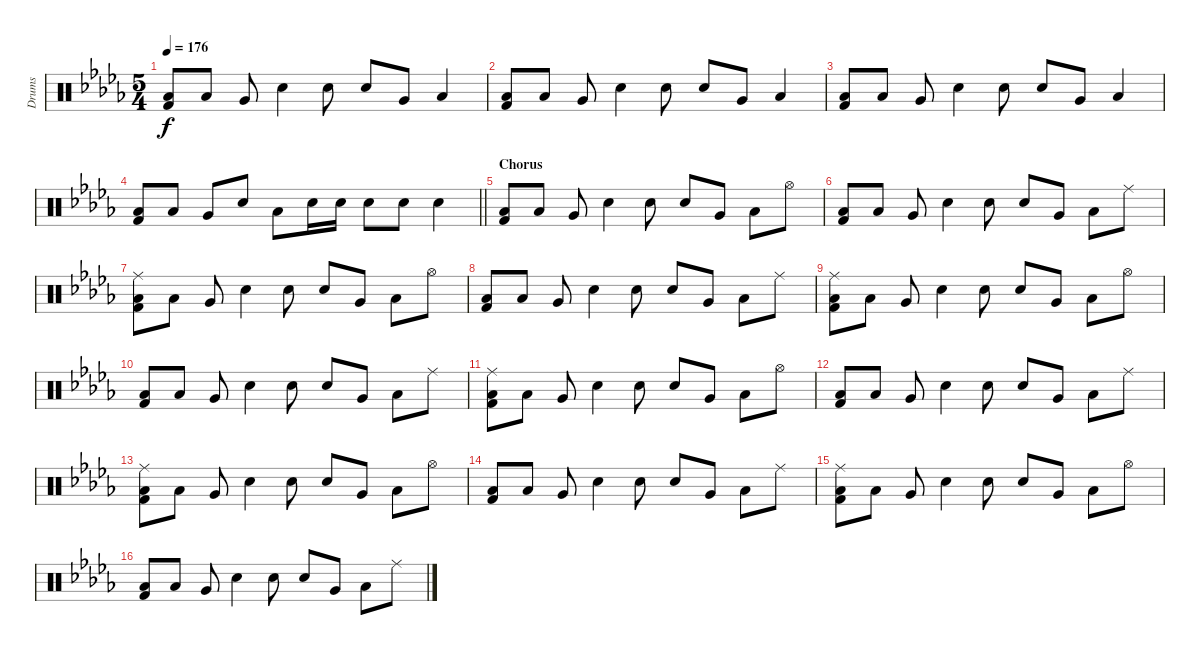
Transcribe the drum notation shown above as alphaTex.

\track ("Drums" "Drums") {instrument percussion}
\staff {score}
\articulation defaults
\ts (5 4)
\tempo 176
\clef neutral
\ks db
("Low Floor Tom (hit)" "Kick (hit) 2").8{dy f} "Low Floor Tom (hit)".8 "Very Low Tom (hit)".8 "Snare (hit) 2".4 "Snare (hit) 2".8 "Snare (hit) 2".8 "Very Low Tom (hit)".8 "Low Floor Tom (hit)".4 |
("Low Floor Tom (hit)" "Kick (hit) 2").8 "Low Floor Tom (hit)".8 "Very Low Tom (hit)".8 "Snare (hit) 2".4 "Snare (hit) 2".8 "Snare (hit) 2".8 "Very Low Tom (hit)".8 "Low Floor Tom (hit)".4 |
("Low Floor Tom (hit)" "Kick (hit) 2").8 "Low Floor Tom (hit)".8 "Very Low Tom (hit)".8 "Snare (hit) 2".4 "Snare (hit) 2".8 "Snare (hit) 2".8 "Very Low Tom (hit)".8 "Low Floor Tom (hit)".4 |
\barLineRight lightlight
("Low Floor Tom (hit)" "Kick (hit) 2").8 "Low Floor Tom (hit)".8 "Very Low Tom (hit)".8 "Snare (hit) 2".8 "Low Floor Tom (hit)".8 "Snare (hit) 2".16 "Snare (hit) 2".16 "Snare (hit) 2".8 "Snare (hit) 2".8 "Snare (hit) 2".4 |
\section ("" "Chorus")
("Low Floor Tom (hit)" "Kick (hit) 2").8 "Low Floor Tom (hit)".8 "Very Low Tom (hit)".8 "Snare (hit) 2".4 "Snare (hit) 2".8 "Snare (hit) 2".8 "Very Low Tom (hit)".8 "Low Floor Tom (hit)".8 "Hi-Hat (open)".8 |
("Low Floor Tom (hit)" "Kick (hit) 2").8 "Low Floor Tom (hit)".8 "Very Low Tom (hit)".8 "Snare (hit) 2".4 "Snare (hit) 2".8 "Snare (hit) 2".8 "Very Low Tom (hit)".8 "Low Floor Tom (hit)".8 "Ride (middle)".8 |
("Ride (middle)" "Low Floor Tom (hit)" "Kick (hit) 2").8 "Low Floor Tom (hit)".8 "Very Low Tom (hit)".8 "Snare (hit) 2".4 "Snare (hit) 2".8 "Snare (hit) 2".8 "Very Low Tom (hit)".8 "Low Floor Tom (hit)".8 "Hi-Hat (open)".8 |
("Low Floor Tom (hit)" "Kick (hit) 2").8 "Low Floor Tom (hit)".8 "Very Low Tom (hit)".8 "Snare (hit) 2".4 "Snare (hit) 2".8 "Snare (hit) 2".8 "Very Low Tom (hit)".8 "Low Floor Tom (hit)".8 "Ride (middle)".8 |
("Ride (middle)" "Low Floor Tom (hit)" "Kick (hit) 2").8 "Low Floor Tom (hit)".8 "Very Low Tom (hit)".8 "Snare (hit) 2".4 "Snare (hit) 2".8 "Snare (hit) 2".8 "Very Low Tom (hit)".8 "Low Floor Tom (hit)".8 "Hi-Hat (open)".8 |
("Low Floor Tom (hit)" "Kick (hit) 2").8 "Low Floor Tom (hit)".8 "Very Low Tom (hit)".8 "Snare (hit) 2".4 "Snare (hit) 2".8 "Snare (hit) 2".8 "Very Low Tom (hit)".8 "Low Floor Tom (hit)".8 "Ride (middle)".8 |
("Ride (middle)" "Low Floor Tom (hit)" "Kick (hit) 2").8 "Low Floor Tom (hit)".8 "Very Low Tom (hit)".8 "Snare (hit) 2".4 "Snare (hit) 2".8 "Snare (hit) 2".8 "Very Low Tom (hit)".8 "Low Floor Tom (hit)".8 "Hi-Hat (open)".8 |
("Low Floor Tom (hit)" "Kick (hit) 2").8 "Low Floor Tom (hit)".8 "Very Low Tom (hit)".8 "Snare (hit) 2".4 "Snare (hit) 2".8 "Snare (hit) 2".8 "Very Low Tom (hit)".8 "Low Floor Tom (hit)".8 "Ride (middle)".8 |
("Ride (middle)" "Low Floor Tom (hit)" "Kick (hit) 2").8 "Low Floor Tom (hit)".8 "Very Low Tom (hit)".8 "Snare (hit) 2".4 "Snare (hit) 2".8 "Snare (hit) 2".8 "Very Low Tom (hit)".8 "Low Floor Tom (hit)".8 "Hi-Hat (open)".8 |
("Low Floor Tom (hit)" "Kick (hit) 2").8 "Low Floor Tom (hit)".8 "Very Low Tom (hit)".8 "Snare (hit) 2".4 "Snare (hit) 2".8 "Snare (hit) 2".8 "Very Low Tom (hit)".8 "Low Floor Tom (hit)".8 "Ride (middle)".8 |
("Ride (middle)" "Low Floor Tom (hit)" "Kick (hit) 2").8 "Low Floor Tom (hit)".8 "Very Low Tom (hit)".8 "Snare (hit) 2".4 "Snare (hit) 2".8 "Snare (hit) 2".8 "Very Low Tom (hit)".8 "Low Floor Tom (hit)".8 "Hi-Hat (open)".8 |
("Low Floor Tom (hit)" "Kick (hit) 2").8 "Low Floor Tom (hit)".8 "Very Low Tom (hit)".8 "Snare (hit) 2".4 "Snare (hit) 2".8 "Snare (hit) 2".8 "Very Low Tom (hit)".8 "Low Floor Tom (hit)".8 "Ride (middle)".8
